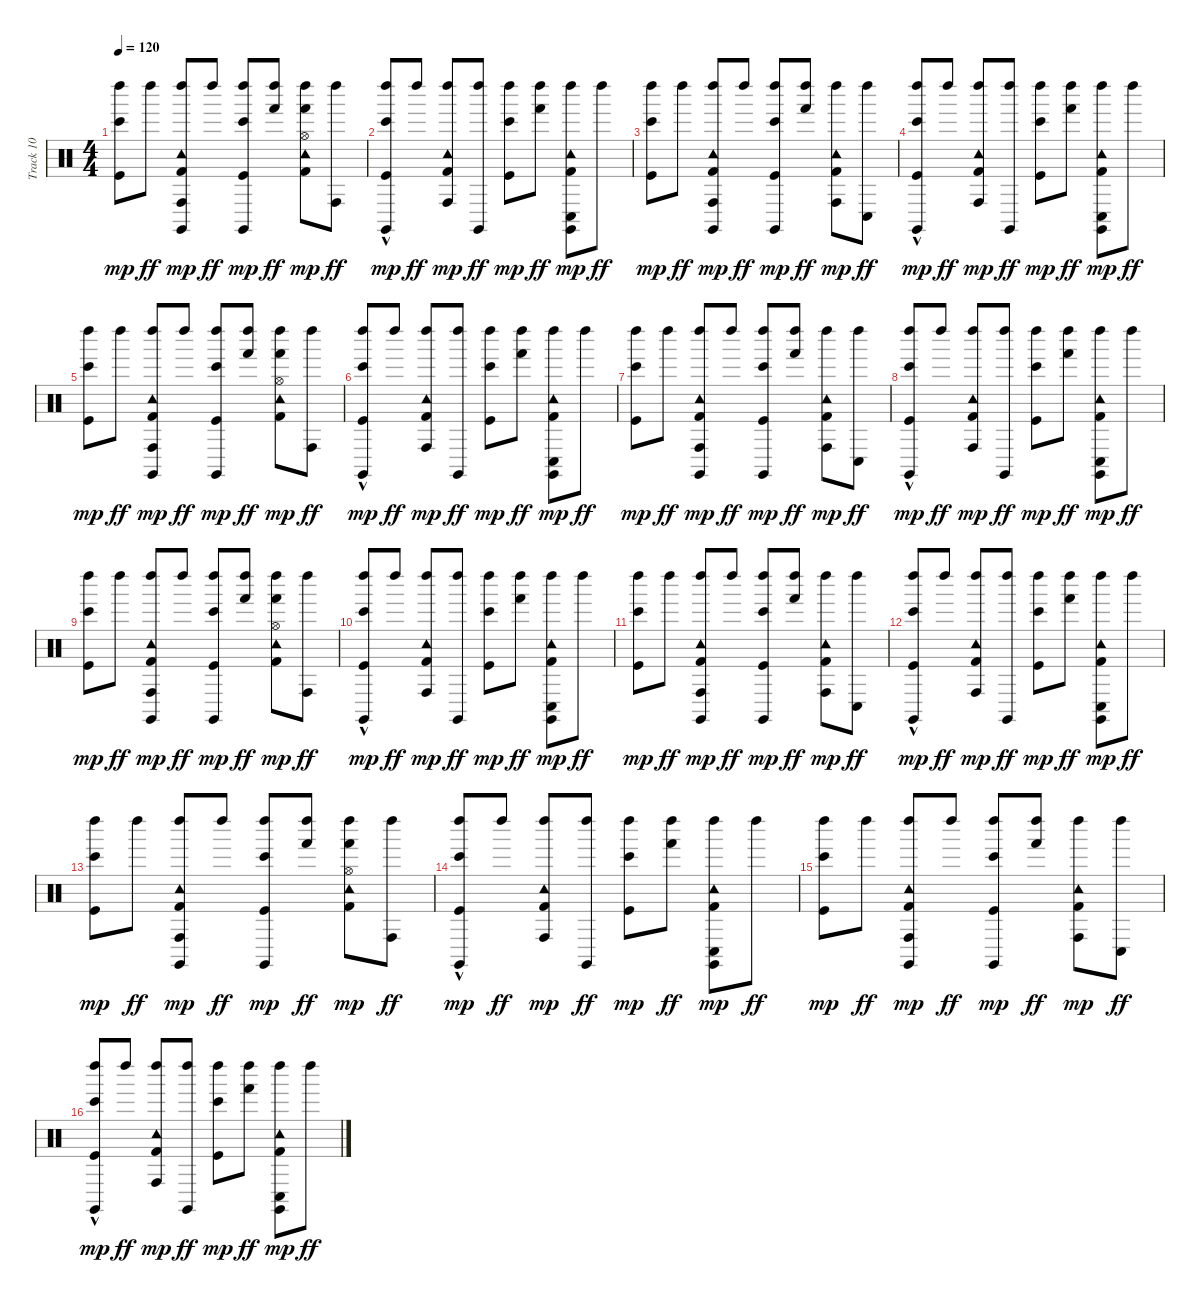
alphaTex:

\track ("Track 10" "Track 10") {instrument percussion}
\staff {score}
\articulation defaults
\ts (4 4)
\tempo 120
\clef neutral
\ks c
("Bongo High (hit)" "Left Maraca (hit)" "Kick (hit)").8{dy mp} "Left Maraca (hit)".8{dy ff} ("Conga high (hit)" "Tambourine (hit)" "Left Maraca (hit)" "Kick (hit) 2" "Claves (hit)").8{dy mp} "Left Maraca (hit)".8{dy ff} ("Bongo High (hit)" "Left Maraca (hit)" "Kick (hit)" "Claves (hit)").8{dy mp} ("Hand (hit)" "Left Maraca (hit)").8{dy ff} ("Hand (hit)" "Hi-Hat (open)" "Tambourine (hit)" "Left Maraca (hit)" "Kick (hit) 2").8{dy mp} ("Conga high (hit)" "Left Maraca (hit)").8{dy ff} |
("Bongo High (hit)" "Left Maraca (hit)" "Kick (hit)" "Claves (hit)"{hac}).8{dy mp} "Left Maraca (hit)".8{dy ff} ("Conga high (hit)" "Tambourine (hit)" "Left Maraca (hit)" "Kick (hit) 2").8{dy mp} ("Left Maraca (hit)" "Claves (hit)").8{dy ff} ("Bongo High (hit)" "Left Maraca (hit)" "Kick (hit)").8{dy mp} ("Hand (hit)" "Left Maraca (hit)").8{dy ff} ("Conga low (hit)" "Tambourine (hit)" "Left Maraca (hit)" "Kick (hit) 2" "Claves (hit)").8{dy mp} "Left Maraca (hit)".8{dy ff} |
("Bongo High (hit)" "Left Maraca (hit)" "Kick (hit)").8{dy mp} "Left Maraca (hit)".8{dy ff} ("Conga high (hit)" "Tambourine (hit)" "Left Maraca (hit)" "Kick (hit) 2" "Claves (hit)").8{dy mp} "Left Maraca (hit)".8{dy ff} ("Bongo High (hit)" "Left Maraca (hit)" "Kick (hit)" "Claves (hit)").8{dy mp} ("Hand (hit)" "Left Maraca (hit)").8{dy ff} ("Conga high (hit)" "Tambourine (hit)" "Left Maraca (hit)" "Kick (hit) 2").8{dy mp} ("Conga low (hit)" "Left Maraca (hit)").8{dy ff} |
("Bongo High (hit)" "Left Maraca (hit)" "Kick (hit)" "Claves (hit)"{hac}).8{dy mp} "Left Maraca (hit)".8{dy ff} ("Conga high (hit)" "Tambourine (hit)" "Left Maraca (hit)" "Kick (hit) 2").8{dy mp} ("Left Maraca (hit)" "Claves (hit)").8{dy ff} ("Bongo High (hit)" "Left Maraca (hit)" "Kick (hit)").8{dy mp} ("Hand (hit)" "Left Maraca (hit)").8{dy ff} ("Conga low (hit)" "Tambourine (hit)" "Left Maraca (hit)" "Kick (hit) 2" "Claves (hit)").8{dy mp} "Left Maraca (hit)".8{dy ff} |
("Bongo High (hit)" "Left Maraca (hit)" "Kick (hit)").8{dy mp} "Left Maraca (hit)".8{dy ff} ("Conga high (hit)" "Tambourine (hit)" "Left Maraca (hit)" "Kick (hit) 2" "Claves (hit)").8{dy mp} "Left Maraca (hit)".8{dy ff} ("Bongo High (hit)" "Left Maraca (hit)" "Kick (hit)" "Claves (hit)").8{dy mp} ("Hand (hit)" "Left Maraca (hit)").8{dy ff} ("Hand (hit)" "Hi-Hat (open)" "Tambourine (hit)" "Left Maraca (hit)" "Kick (hit) 2").8{dy mp} ("Conga high (hit)" "Left Maraca (hit)").8{dy ff} |
("Bongo High (hit)" "Left Maraca (hit)" "Kick (hit)" "Claves (hit)"{hac}).8{dy mp} "Left Maraca (hit)".8{dy ff} ("Conga high (hit)" "Tambourine (hit)" "Left Maraca (hit)" "Kick (hit) 2").8{dy mp} ("Left Maraca (hit)" "Claves (hit)").8{dy ff} ("Bongo High (hit)" "Left Maraca (hit)" "Kick (hit)").8{dy mp} ("Hand (hit)" "Left Maraca (hit)").8{dy ff} ("Conga low (hit)" "Tambourine (hit)" "Left Maraca (hit)" "Kick (hit) 2" "Claves (hit)").8{dy mp} "Left Maraca (hit)".8{dy ff} |
("Bongo High (hit)" "Left Maraca (hit)" "Kick (hit)").8{dy mp} "Left Maraca (hit)".8{dy ff} ("Conga high (hit)" "Tambourine (hit)" "Left Maraca (hit)" "Kick (hit) 2" "Claves (hit)").8{dy mp} "Left Maraca (hit)".8{dy ff} ("Bongo High (hit)" "Left Maraca (hit)" "Kick (hit)" "Claves (hit)").8{dy mp} ("Hand (hit)" "Left Maraca (hit)").8{dy ff} ("Conga high (hit)" "Tambourine (hit)" "Left Maraca (hit)" "Kick (hit) 2").8{dy mp} ("Conga low (hit)" "Left Maraca (hit)").8{dy ff} |
("Bongo High (hit)" "Left Maraca (hit)" "Kick (hit)" "Claves (hit)"{hac}).8{dy mp} "Left Maraca (hit)".8{dy ff} ("Conga high (hit)" "Tambourine (hit)" "Left Maraca (hit)" "Kick (hit) 2").8{dy mp} ("Left Maraca (hit)" "Claves (hit)").8{dy ff} ("Bongo High (hit)" "Left Maraca (hit)" "Kick (hit)").8{dy mp} ("Hand (hit)" "Left Maraca (hit)").8{dy ff} ("Conga low (hit)" "Tambourine (hit)" "Left Maraca (hit)" "Kick (hit) 2" "Claves (hit)").8{dy mp} "Left Maraca (hit)".8{dy ff} |
("Bongo High (hit)" "Left Maraca (hit)" "Kick (hit)").8{dy mp} "Left Maraca (hit)".8{dy ff} ("Conga high (hit)" "Tambourine (hit)" "Left Maraca (hit)" "Kick (hit) 2" "Claves (hit)").8{dy mp} "Left Maraca (hit)".8{dy ff} ("Bongo High (hit)" "Left Maraca (hit)" "Kick (hit)" "Claves (hit)").8{dy mp} ("Hand (hit)" "Left Maraca (hit)").8{dy ff} ("Hand (hit)" "Hi-Hat (open)" "Tambourine (hit)" "Left Maraca (hit)" "Kick (hit) 2").8{dy mp} ("Conga high (hit)" "Left Maraca (hit)").8{dy ff} |
("Bongo High (hit)" "Left Maraca (hit)" "Kick (hit)" "Claves (hit)"{hac}).8{dy mp} "Left Maraca (hit)".8{dy ff} ("Conga high (hit)" "Tambourine (hit)" "Left Maraca (hit)" "Kick (hit) 2").8{dy mp} ("Left Maraca (hit)" "Claves (hit)").8{dy ff} ("Bongo High (hit)" "Left Maraca (hit)" "Kick (hit)").8{dy mp} ("Hand (hit)" "Left Maraca (hit)").8{dy ff} ("Conga low (hit)" "Tambourine (hit)" "Left Maraca (hit)" "Kick (hit) 2" "Claves (hit)").8{dy mp} "Left Maraca (hit)".8{dy ff} |
("Bongo High (hit)" "Left Maraca (hit)" "Kick (hit)").8{dy mp} "Left Maraca (hit)".8{dy ff} ("Conga high (hit)" "Tambourine (hit)" "Left Maraca (hit)" "Kick (hit) 2" "Claves (hit)").8{dy mp} "Left Maraca (hit)".8{dy ff} ("Bongo High (hit)" "Left Maraca (hit)" "Kick (hit)" "Claves (hit)").8{dy mp} ("Hand (hit)" "Left Maraca (hit)").8{dy ff} ("Conga high (hit)" "Tambourine (hit)" "Left Maraca (hit)" "Kick (hit) 2").8{dy mp} ("Conga low (hit)" "Left Maraca (hit)").8{dy ff} |
("Bongo High (hit)" "Left Maraca (hit)" "Kick (hit)" "Claves (hit)"{hac}).8{dy mp} "Left Maraca (hit)".8{dy ff} ("Conga high (hit)" "Tambourine (hit)" "Left Maraca (hit)" "Kick (hit) 2").8{dy mp} ("Left Maraca (hit)" "Claves (hit)").8{dy ff} ("Bongo High (hit)" "Left Maraca (hit)" "Kick (hit)").8{dy mp} ("Hand (hit)" "Left Maraca (hit)").8{dy ff} ("Conga low (hit)" "Tambourine (hit)" "Left Maraca (hit)" "Kick (hit) 2" "Claves (hit)").8{dy mp} "Left Maraca (hit)".8{dy ff} |
("Bongo High (hit)" "Left Maraca (hit)" "Kick (hit)").8{dy mp} "Left Maraca (hit)".8{dy ff} ("Conga high (hit)" "Tambourine (hit)" "Left Maraca (hit)" "Kick (hit) 2" "Claves (hit)").8{dy mp} "Left Maraca (hit)".8{dy ff} ("Bongo High (hit)" "Left Maraca (hit)" "Kick (hit)" "Claves (hit)").8{dy mp} ("Hand (hit)" "Left Maraca (hit)").8{dy ff} ("Hand (hit)" "Hi-Hat (open)" "Tambourine (hit)" "Left Maraca (hit)" "Kick (hit) 2").8{dy mp} ("Conga high (hit)" "Left Maraca (hit)").8{dy ff} |
("Bongo High (hit)" "Left Maraca (hit)" "Kick (hit)" "Claves (hit)"{hac}).8{dy mp} "Left Maraca (hit)".8{dy ff} ("Conga high (hit)" "Tambourine (hit)" "Left Maraca (hit)" "Kick (hit) 2").8{dy mp} ("Left Maraca (hit)" "Claves (hit)").8{dy ff} ("Bongo High (hit)" "Left Maraca (hit)" "Kick (hit)").8{dy mp} ("Hand (hit)" "Left Maraca (hit)").8{dy ff} ("Conga low (hit)" "Tambourine (hit)" "Left Maraca (hit)" "Kick (hit) 2" "Claves (hit)").8{dy mp} "Left Maraca (hit)".8{dy ff} |
("Bongo High (hit)" "Left Maraca (hit)" "Kick (hit)").8{dy mp} "Left Maraca (hit)".8{dy ff} ("Conga high (hit)" "Tambourine (hit)" "Left Maraca (hit)" "Kick (hit) 2" "Claves (hit)").8{dy mp} "Left Maraca (hit)".8{dy ff} ("Bongo High (hit)" "Left Maraca (hit)" "Kick (hit)" "Claves (hit)").8{dy mp} ("Hand (hit)" "Left Maraca (hit)").8{dy ff} ("Conga high (hit)" "Tambourine (hit)" "Left Maraca (hit)" "Kick (hit) 2").8{dy mp} ("Conga low (hit)" "Left Maraca (hit)").8{dy ff} |
("Bongo High (hit)" "Left Maraca (hit)" "Kick (hit)" "Claves (hit)"{hac}).8{dy mp} "Left Maraca (hit)".8{dy ff} ("Conga high (hit)" "Tambourine (hit)" "Left Maraca (hit)" "Kick (hit) 2").8{dy mp} ("Left Maraca (hit)" "Claves (hit)").8{dy ff} ("Bongo High (hit)" "Left Maraca (hit)" "Kick (hit)").8{dy mp} ("Hand (hit)" "Left Maraca (hit)").8{dy ff} ("Conga low (hit)" "Tambourine (hit)" "Left Maraca (hit)" "Kick (hit) 2" "Claves (hit)").8{dy mp} "Left Maraca (hit)".8{dy ff}
